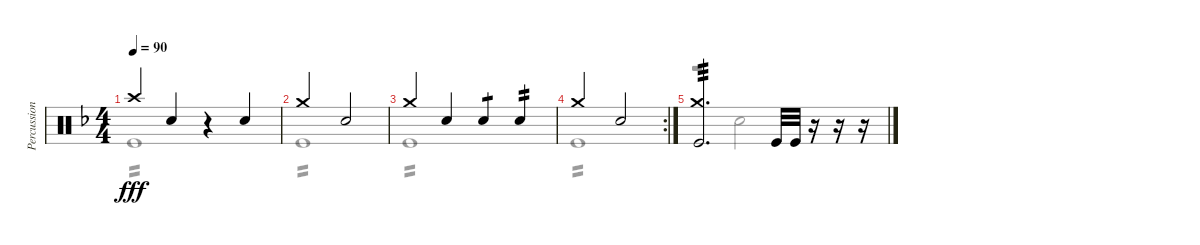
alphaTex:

\track ("Percussion" "Percussion") {instrument percussion}
\staff {score}
\articulation defaults
\voice
\ts (4 4)
\tempo 90
\clef neutral
\ks dminor "Crash high (hit)".4{dy fff} "Electric Snare (hit)".4
r.4 "Electric Snare (hit)".4 |
"Crash medium (hit)".2 "Electric Snare (hit)".2 |
"Crash medium (hit)".4 "Electric Snare (hit)".4 "Electric Snare (hit)".4{tp 1} "Electric Snare (hit)".4{tp 2} |
\rc 2 "Crash medium (hit)".2 "Electric Snare (hit)".2
|
("Crash medium (hit)" "Kick (hit)").2{d tp 3} "Kick (hit)".32 "Kick (hit)".32 r.16 r.16 r.16 |
\voice
\clef neutral
\ottava regular
\simile none
\ks dminor "Kick (hit)".1{tp 2 dy fff}
|
"Kick (hit)".1{tp 2} |
"Kick (hit)".1{tp 2} |
"Kick (hit)".1{tp 2} |
r.2 "Electric Snare (hit)".2 |
